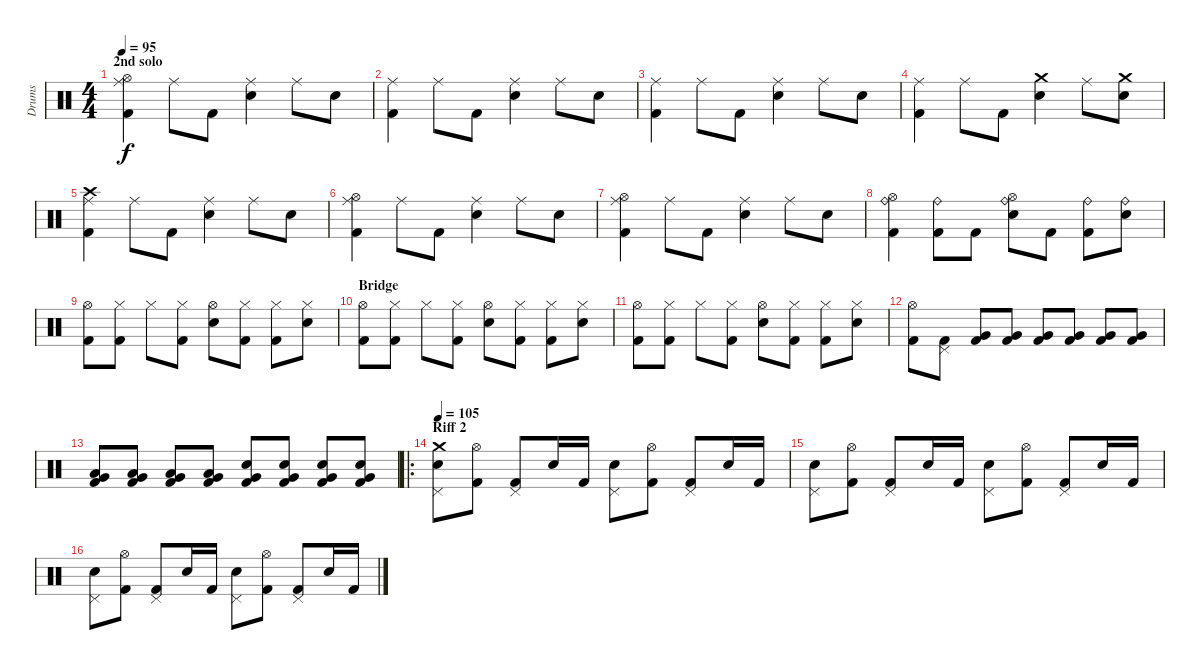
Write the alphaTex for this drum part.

\track ("Drums" "Drums") {instrument percussion}
\staff {score}
\articulation defaults
\ts (4 4)
\section ("" "2nd solo")
\tempo 95
\clef neutral
\ks c
("Hi-Hat (open)" "Ride (middle)" "Kick (hit) 2").4{dy f} "Ride (middle)".8 "Kick (hit) 2".8 ("Ride (middle)" "Electric Snare (hit)").4 "Ride (middle)".8 "Electric Snare (hit)".8 |
("Ride (middle)" "Kick (hit) 2").4 "Ride (middle)".8 "Kick (hit) 2".8 ("Ride (middle)" "Electric Snare (hit)").4 "Ride (middle)".8 "Electric Snare (hit)".8 |
("Ride (middle)" "Kick (hit) 2").4 "Ride (middle)".8 "Kick (hit) 2".8 ("Ride (middle)" "Electric Snare (hit)").4 "Ride (middle)".8 "Electric Snare (hit)".8 |
("Ride (middle)" "Kick (hit) 2").4 "Ride (middle)".8 "Kick (hit) 2".8 ("Crash medium (hit)" "Electric Snare (hit)").4 "Ride (middle)".8 ("Crash medium (hit)" "Electric Snare (hit)").8 |
("Crash high (hit)" "Ride (middle)" "Kick (hit) 2").4 "Ride (middle)".8 "Kick (hit) 2".8 ("Ride (middle)" "Electric Snare (hit)").4 "Ride (middle)".8 "Electric Snare (hit)".8 |
("Hi-Hat (open)" "Ride (middle)" "Kick (hit) 2").4 "Ride (middle)".8 "Kick (hit) 2".8 ("Ride (middle)" "Electric Snare (hit)").4 "Ride (middle)".8 "Electric Snare (hit)".8 |
("Hi-Hat (open)" "Ride (middle)" "Kick (hit) 2").4 "Ride (middle)".8 "Kick (hit) 2".8 ("Ride (middle)" "Electric Snare (hit)").4 "Ride (middle)".8 "Electric Snare (hit)".8 |
("Hi-Hat (open)" "Ride (bell)" "Kick (hit) 2").4 ("Ride (bell)" "Kick (hit) 2").8 "Kick (hit) 2".8 ("Hi-Hat (open)" "Ride (bell)" "Electric Snare (hit)").8 "Kick (hit) 2".8 ("Ride (bell)" "Kick (hit) 2").8 ("Ride (bell)" "Electric Snare (hit)").8 |
("Hi-Hat (open)" "Kick (hit) 2").8 ("Hi-Hat (closed)" "Kick (hit) 2").8 "Hi-Hat (closed)".8 ("Hi-Hat (closed)" "Kick (hit) 2").8 ("Hi-Hat (open)" "Electric Snare (hit)").8 ("Hi-Hat (closed)" "Kick (hit) 2").8 ("Hi-Hat (closed)" "Kick (hit) 2").8 ("Hi-Hat (closed)" "Electric Snare (hit)").8 |
\section ("" "Bridge")
("Hi-Hat (open)" "Kick (hit) 2").8 ("Hi-Hat (closed)" "Kick (hit) 2").8 "Hi-Hat (closed)".8 ("Hi-Hat (closed)" "Kick (hit) 2").8 ("Hi-Hat (open)" "Electric Snare (hit)").8 ("Hi-Hat (closed)" "Kick (hit) 2").8 ("Hi-Hat (closed)" "Kick (hit) 2").8 ("Hi-Hat (closed)" "Electric Snare (hit)").8 |
("Hi-Hat (open)" "Kick (hit) 2").8 ("Hi-Hat (closed)" "Kick (hit) 2").8 "Hi-Hat (closed)".8 ("Hi-Hat (closed)" "Kick (hit) 2").8 ("Hi-Hat (open)" "Electric Snare (hit)").8 ("Hi-Hat (closed)" "Kick (hit) 2").8 ("Hi-Hat (closed)" "Kick (hit) 2").8 ("Hi-Hat (closed)" "Electric Snare (hit)").8 |
("Hi-Hat (open)" "Kick (hit) 2").8 ("Pedal Hi-Hat (hit)" "Kick (hit) 2").8 ("Very Low Tom (hit)" "Kick (hit) 2").8 ("Very Low Tom (hit)" "Kick (hit) 2").8 ("Very Low Tom (hit)" "Kick (hit) 2").8 ("Very Low Tom (hit)" "Kick (hit) 2").8 ("Very Low Tom (hit)" "Kick (hit) 2").8 ("Very Low Tom (hit)" "Kick (hit) 2").8 |
("Low Floor Tom (hit)" "Very Low Tom (hit)" "Kick (hit) 2").8 ("Low Floor Tom (hit)" "Very Low Tom (hit)" "Kick (hit) 2").8 ("Low Floor Tom (hit)" "Very Low Tom (hit)" "Kick (hit) 2").8 ("Low Floor Tom (hit)" "Very Low Tom (hit)" "Kick (hit) 2").8 ("Electric Snare (hit)" "Very Low Tom (hit)" "Kick (hit) 2").8 ("Electric Snare (hit)" "Very Low Tom (hit)" "Kick (hit) 2").8 ("Electric Snare (hit)" "Very Low Tom (hit)" "Kick (hit) 2").8 ("Electric Snare (hit)" "Very Low Tom (hit)" "Kick (hit) 2").8 |
\ro
\section ("" "Riff 2")
\tempo 105
("Crash medium (hit)" "Pedal Hi-Hat (hit)" "Electric Snare (hit)").8 ("Hi-Hat (open)" "Kick (hit) 2").8 ("Pedal Hi-Hat (hit)" "Kick (hit) 2").8 "Electric Snare (hit)".16 "Kick (hit) 2".16 ("Pedal Hi-Hat (hit)" "Electric Snare (hit)").8 ("Hi-Hat (open)" "Kick (hit) 2").8 ("Pedal Hi-Hat (hit)" "Kick (hit) 2").8 "Electric Snare (hit)".16 "Kick (hit) 2".16 |
("Pedal Hi-Hat (hit)" "Electric Snare (hit)").8 ("Hi-Hat (open)" "Kick (hit) 2").8 ("Pedal Hi-Hat (hit)" "Kick (hit) 2").8 "Electric Snare (hit)".16 "Kick (hit) 2".16 ("Pedal Hi-Hat (hit)" "Electric Snare (hit)").8 ("Hi-Hat (open)" "Kick (hit) 2").8 ("Pedal Hi-Hat (hit)" "Kick (hit) 2").8 "Electric Snare (hit)".16 "Kick (hit) 2".16 |
("Pedal Hi-Hat (hit)" "Electric Snare (hit)").8 ("Hi-Hat (open)" "Kick (hit) 2").8 ("Pedal Hi-Hat (hit)" "Kick (hit) 2").8 "Electric Snare (hit)".16 "Kick (hit) 2".16 ("Pedal Hi-Hat (hit)" "Electric Snare (hit)").8 ("Hi-Hat (open)" "Kick (hit) 2").8 ("Pedal Hi-Hat (hit)" "Kick (hit) 2").8 "Electric Snare (hit)".16 "Kick (hit) 2".16
